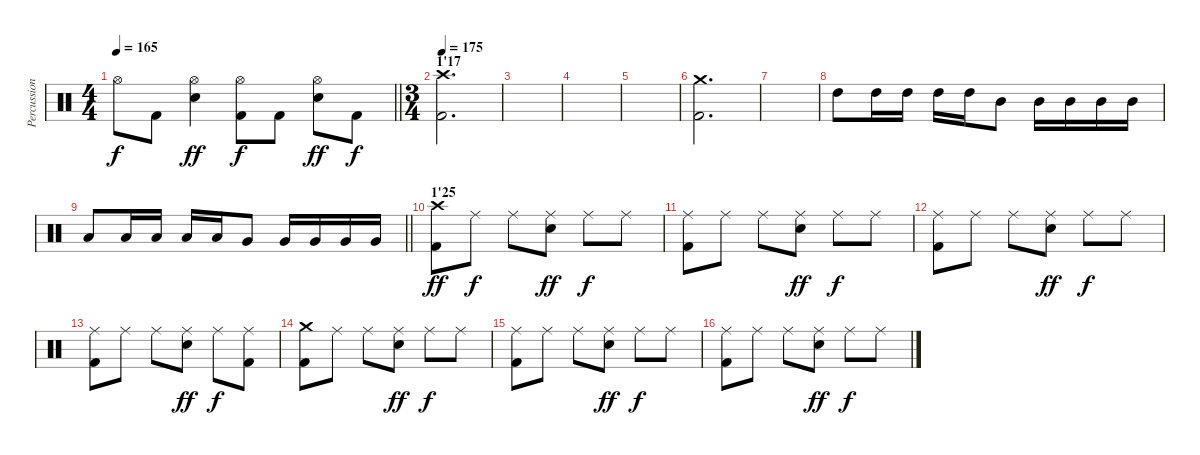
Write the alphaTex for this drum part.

\track ("Percussions" "Percussion") {instrument percussion}
\staff {score}
\articulation defaults
\ts (4 4)
\tempo 165
\clef neutral
\barLineRight lightlight
\ks c "Hi-Hat (open)".8{dy f} "Kick (hit) 2".8
("Hi-Hat (open)" "Electric Snare (hit)").4{dy ff} ("Hi-Hat (open)" "Kick (hit) 2").8{dy f} "Kick (hit) 2".8 ("Hi-Hat (open)" "Electric Snare (hit)").8{dy ff} "Kick (hit) 2".8{dy f} |
\ts (3 4)
\section ("" "1'17")
\tempo 175
("Crash high (hit)" "Kick (hit) 2").2{d} |
|
|
|
("Crash medium (hit)" "Kick (hit) 2").2{d} |
|
"High Tom (hit)".8 "High Tom (hit)".16 "High Tom (hit)".16 "High Tom (hit)".16 "High Tom (hit)".16 "Mid Tom (hit)".8 "Mid Tom (hit)".16 "Mid Tom (hit)".16 "Mid Tom (hit)".16 "Mid Tom (hit)".16 |
\barLineRight lightlight "Low Tom (hit)".8 "Low Tom (hit)".16 "Low Tom (hit)".16 "Low Tom (hit)".16 "Low Tom (hit)".16 "Very Low Tom (hit)".8 "Very Low Tom (hit)".16 "Very Low Tom (hit)".16 "Very Low Tom (hit)".16 "Very Low Tom (hit)".16
|
\section ("" "1'25")
("Crash high (hit)" "Kick (hit) 2").8{dy ff} "Ride (middle)".8{dy f} "Ride (middle)".8 ("Ride (middle)" "Electric Snare (hit)").8{dy ff} "Ride (middle)".8{dy f} "Ride (middle)".8 |
("Ride (middle)" "Kick (hit) 2").8 "Ride (middle)".8 "Ride (middle)".8 ("Ride (middle)" "Electric Snare (hit)").8{dy ff} "Ride (middle)".8{dy f} "Ride (middle)".8 |
("Ride (middle)" "Kick (hit) 2").8 "Ride (middle)".8 "Ride (middle)".8 ("Ride (middle)" "Electric Snare (hit)").8{dy ff} "Ride (middle)".8{dy f} "Ride (middle)".8 |
("Ride (middle)" "Kick (hit) 2").8 "Ride (middle)".8 "Ride (middle)".8 ("Ride (middle)" "Electric Snare (hit)").8{dy ff} "Ride (middle)".8{dy f} ("Ride (middle)" "Kick (hit) 2").8 |
("Crash medium (hit)" "Kick (hit) 2").8 "Ride (middle)".8 "Ride (middle)".8 ("Ride (middle)" "Electric Snare (hit)").8{dy ff} "Ride (middle)".8{dy f} "Ride (middle)".8 |
("Ride (middle)" "Kick (hit) 2").8 "Ride (middle)".8 "Ride (middle)".8 ("Ride (middle)" "Electric Snare (hit)").8{dy ff} "Ride (middle)".8{dy f} "Ride (middle)".8 |
("Ride (middle)" "Kick (hit) 2").8 "Ride (middle)".8 "Ride (middle)".8 ("Ride (middle)" "Electric Snare (hit)").8{dy ff} "Ride (middle)".8{dy f} "Ride (middle)".8
